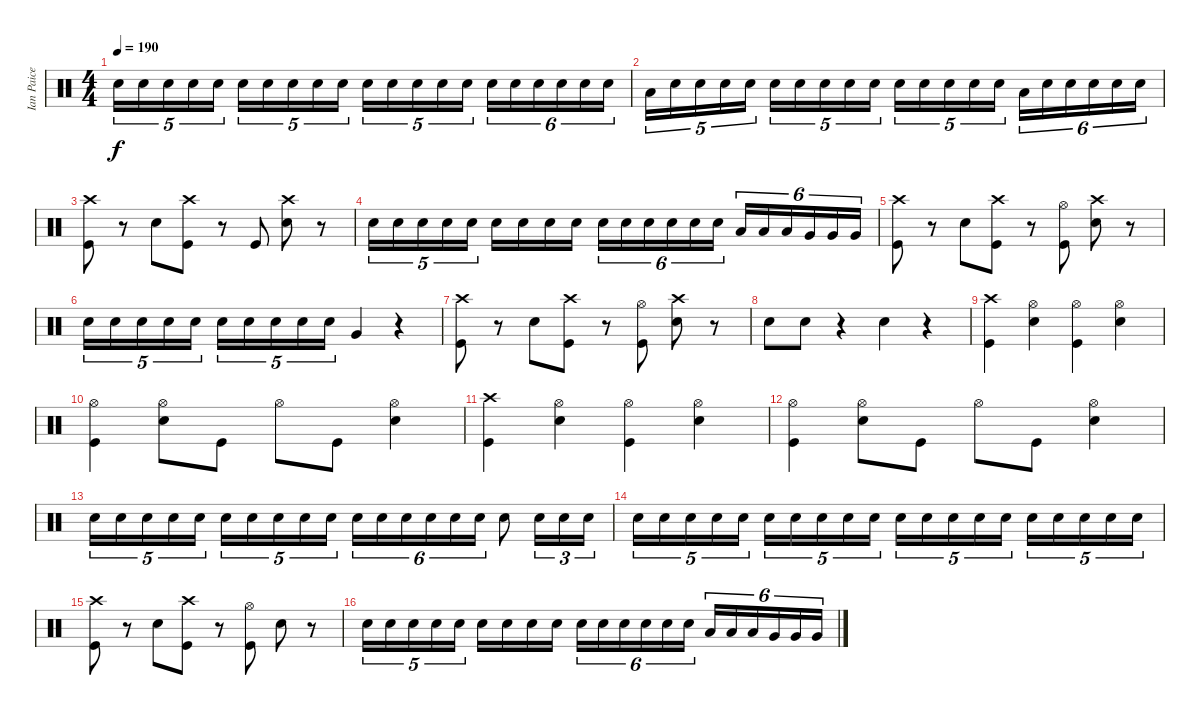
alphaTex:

\track ("Ian Paice" "Ian Paice") {instrument percussion}
\staff {score}
\articulation defaults
\ts (4 4)
\tempo 190
\clef neutral
\ks c "Snare (hit) 2".16{tu (5 4) dy f} "Snare (hit) 2".16{tu (5 4)} "Snare (hit) 2".16{tu (5 4)} "Snare (hit) 2".16{tu (5 4)} "Snare (hit) 2".16{tu (5 4)} "Snare (hit) 2".16{tu (5 4)} "Snare (hit) 2".16{tu (5 4)} "Snare (hit) 2".16{tu (5 4)} "Snare (hit) 2".16{tu (5 4)} "Snare (hit) 2".16{tu (5 4)} "Snare (hit) 2".16{tu (5 4)} "Snare (hit) 2".16{tu (5 4)} "Snare (hit) 2".16{tu (5 4)} "Snare (hit) 2".16{tu (5 4)} "Snare (hit) 2".16{tu (5 4)} "Snare (hit) 2".16{tu (6 4)} "Snare (hit) 2".16{tu (6 4)} "Snare (hit) 2".16{tu (6 4)} "Snare (hit) 2".16{tu (6 4)} "Snare (hit) 2".16{tu (6 4)} "Snare (hit) 2".16{tu (6 4)}
|
"Low Tom (hit)".16{tu (5 4)} "Snare (hit) 2".16{tu (5 4)} "Snare (hit) 2".16{tu (5 4)} "Snare (hit) 2".16{tu (5 4)} "Snare (hit) 2".16{tu (5 4)} "Snare (hit) 2".16{tu (5 4)} "Snare (hit) 2".16{tu (5 4)} "Snare (hit) 2".16{tu (5 4)} "Snare (hit) 2".16{tu (5 4)} "Snare (hit) 2".16{tu (5 4)} "Snare (hit) 2".16{tu (5 4)} "Snare (hit) 2".16{tu (5 4)} "Snare (hit) 2".16{tu (5 4)} "Snare (hit) 2".16{tu (5 4)} "Snare (hit) 2".16{tu (5 4)} "Low Tom (hit)".16{tu (6 4)} "Snare (hit) 2".16{tu (6 4)} "Snare (hit) 2".16{tu (6 4)} "Snare (hit) 2".16{tu (6 4)} "Snare (hit) 2".16{tu (6 4)} "Snare (hit) 2".16{tu (6 4)} |
("Kick (hit)" "Crash high (hit)").8 r.8 "Snare (hit) 2".8 ("Kick (hit)" "Crash high (hit)").8 r.8 "Kick (hit)".8 ("Snare (hit) 2" "Crash high (hit)").8 r.8 |
"Snare (hit) 2".16{tu (5 4)} "Snare (hit) 2".16{tu (5 4)} "Snare (hit) 2".16{tu (5 4)} "Snare (hit) 2".16{tu (5 4)} "Snare (hit) 2".16{tu (5 4)} "Snare (hit) 2".16 "Snare (hit) 2".16 "Snare (hit) 2".16 "Snare (hit) 2".16 "Snare (hit) 2".16{tu (6 4)} "Snare (hit) 2".16{tu (6 4)} "Snare (hit) 2".16{tu (6 4)} "Snare (hit) 2".16{tu (6 4)} "Snare (hit) 2".16{tu (6 4)} "Snare (hit) 2".16{tu (6 4)} "Low Tom (hit)".16{tu (6 4)} "Low Tom (hit)".16{tu (6 4)} "Low Tom (hit)".16{tu (6 4)} "Very Low Tom (hit)".16{tu (6 4)} "Very Low Tom (hit)".16{tu (6 4)} "Very Low Tom (hit)".16{tu (6 4)} |
("Kick (hit)" "Crash high (hit)").8 r.8 "Snare (hit) 2".8 ("Crash high (hit)" "Kick (hit)").8 r.8 ("Hi-Hat (open)" "Kick (hit)").8 ("Crash high (hit)" "Snare (hit) 2").8 r.8 |
"Snare (hit) 2".16{tu (5 4)} "Snare (hit) 2".16{tu (5 4)} "Snare (hit) 2".16{tu (5 4)} "Snare (hit) 2".16{tu (5 4)} "Snare (hit) 2".16{tu (5 4)} "Snare (hit) 2".16{tu (5 4)} "Snare (hit) 2".16{tu (5 4)} "Snare (hit) 2".16{tu (5 4)} "Snare (hit) 2".16{tu (5 4)} "Snare (hit) 2".16{tu (5 4)} "Very Low Tom (hit)".4 r.4 |
("Kick (hit)" "Crash high (hit)").8 r.8 "Snare (hit) 2".8 ("Kick (hit)" "Crash high (hit)").8 r.8 ("Kick (hit)" "Hi-Hat (open)").8 ("Crash high (hit)" "Snare (hit) 2").8 r.8 |
"Snare (hit) 2".8 "Snare (hit) 2".8 r.4 "Snare (hit) 2".4 r.4 |
("Kick (hit)" "Crash high (hit)").4 ("Snare (hit) 2" "Hi-Hat (open)").4 ("Hi-Hat (open)" "Kick (hit)").4 ("Snare (hit) 2" "Hi-Hat (open)").4 |
("Kick (hit)" "Hi-Hat (open)").4 ("Snare (hit) 2" "Hi-Hat (open)").8 "Kick (hit)".8 "Hi-Hat (open)".8 "Kick (hit)".8 ("Snare (hit) 2" "Hi-Hat (open)").4 |
("Kick (hit)" "Crash high (hit)").4 ("Hi-Hat (open)" "Snare (hit) 2").4 ("Kick (hit)" "Hi-Hat (open)").4 ("Snare (hit) 2" "Hi-Hat (open)").4 |
("Hi-Hat (open)" "Kick (hit)").4 ("Snare (hit) 2" "Hi-Hat (open)").8 "Kick (hit)".8 "Hi-Hat (open)".8 "Kick (hit)".8 ("Hi-Hat (open)" "Snare (hit) 2").4 |
"Snare (hit) 2".16{tu (5 4)} "Snare (hit) 2".16{tu (5 4)} "Snare (hit) 2".16{tu (5 4)} "Snare (hit) 2".16{tu (5 4)} "Snare (hit) 2".16{tu (5 4)} "Snare (hit) 2".16{tu (5 4)} "Snare (hit) 2".16{tu (5 4)} "Snare (hit) 2".16{tu (5 4)} "Snare (hit) 2".16{tu (5 4)} "Snare (hit) 2".16{tu (5 4)} "Snare (hit) 2".16{tu (6 4)} "Snare (hit) 2".16{tu (6 4)} "Snare (hit) 2".16{tu (6 4)} "Snare (hit) 2".16{tu (6 4)} "Snare (hit) 2".16{tu (6 4)} "Snare (hit) 2".16{tu (6 4)} "Snare (hit) 2".8 "Snare (hit) 2".16{tu (3 2)} "Snare (hit) 2".16{tu (3 2)} "Snare (hit) 2".16{tu (3 2)} |
"Snare (hit) 2".16{tu (5 4)} "Snare (hit) 2".16{tu (5 4)} "Snare (hit) 2".16{tu (5 4)} "Snare (hit) 2".16{tu (5 4)} "Snare (hit) 2".16{tu (5 4)} "Snare (hit) 2".16{tu (5 4)} "Snare (hit) 2".16{tu (5 4)} "Snare (hit) 2".16{tu (5 4)} "Snare (hit) 2".16{tu (5 4)} "Snare (hit) 2".16{tu (5 4)} "Snare (hit) 2".16{tu (5 4)} "Snare (hit) 2".16{tu (5 4)} "Snare (hit) 2".16{tu (5 4)} "Snare (hit) 2".16{tu (5 4)} "Snare (hit) 2".16{tu (5 4)} "Snare (hit) 2".16{tu (5 4)} "Snare (hit) 2".16{tu (5 4)} "Snare (hit) 2".16{tu (5 4)} "Snare (hit) 2".16{tu (5 4)} "Snare (hit) 2".16{tu (5 4)} |
("Crash high (hit)" "Kick (hit)").8 r.8 "Snare (hit) 2".8 ("Kick (hit)" "Crash high (hit)").8 r.8 ("Hi-Hat (open)" "Kick (hit)").8 "Snare (hit) 2".8 r.8 |
"Snare (hit) 2".16{tu (5 4)} "Snare (hit) 2".16{tu (5 4)} "Snare (hit) 2".16{tu (5 4)} "Snare (hit) 2".16{tu (5 4)} "Snare (hit) 2".16{tu (5 4)} "Snare (hit) 2".16 "Snare (hit) 2".16 "Snare (hit) 2".16 "Snare (hit) 2".16 "Snare (hit) 2".16{tu (6 4)} "Snare (hit) 2".16{tu (6 4)} "Snare (hit) 2".16{tu (6 4)} "Snare (hit) 2".16{tu (6 4)} "Snare (hit) 2".16{tu (6 4)} "Snare (hit) 2".16{tu (6 4)} "Low Tom (hit)".16{tu (6 4)} "Low Tom (hit)".16{tu (6 4)} "Low Tom (hit)".16{tu (6 4)} "Very Low Tom (hit)".16{tu (6 4)} "Very Low Tom (hit)".16{tu (6 4)} "Very Low Tom (hit)".16{tu (6 4)}
